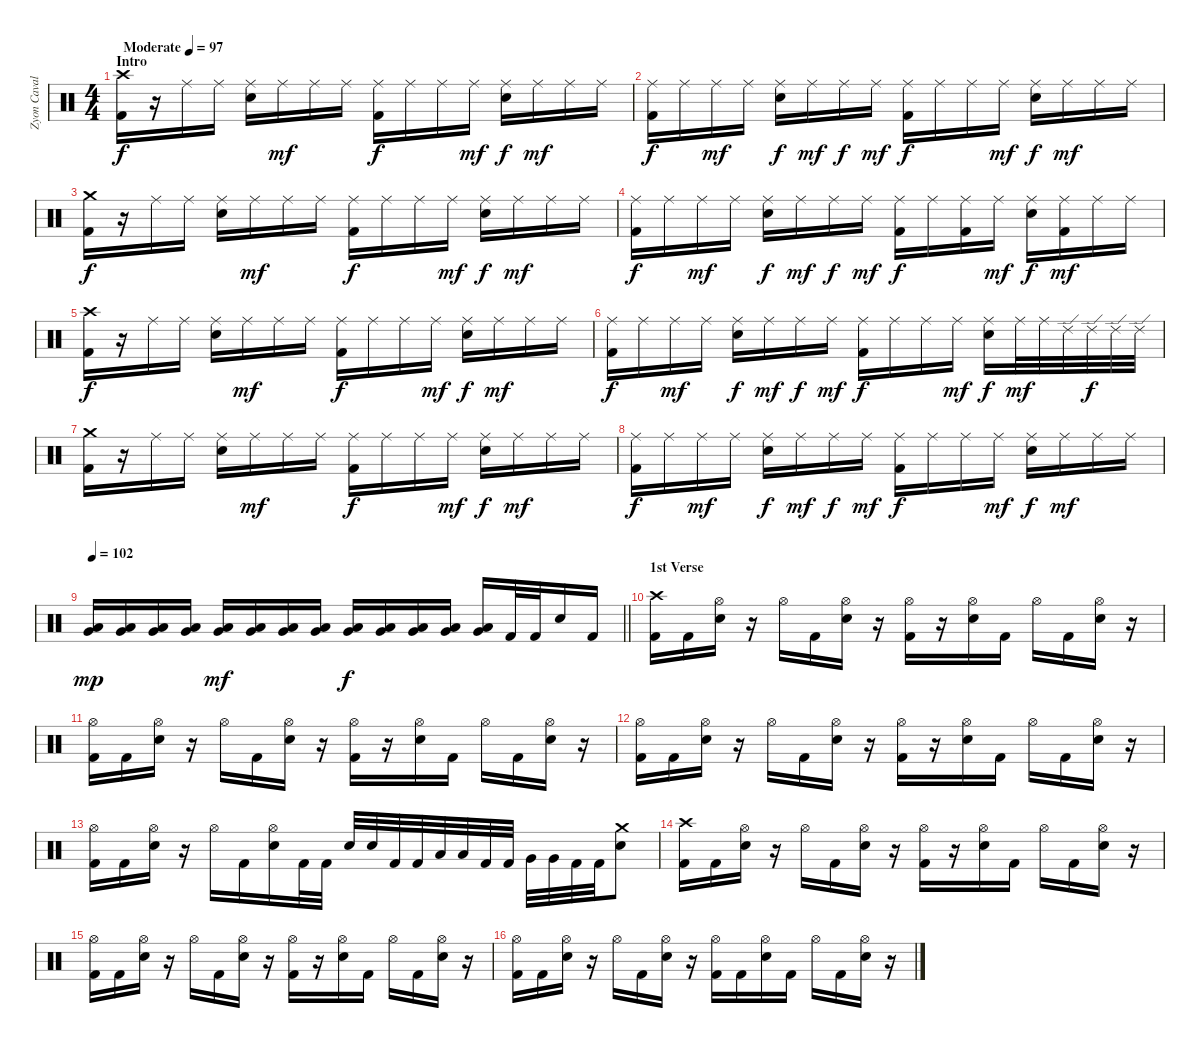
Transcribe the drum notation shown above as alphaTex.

\track ("Zyon Cavalera" "Zyon Caval") {instrument percussion}
\staff {score}
\articulation defaults
\ts (4 4)
\section ("" "Intro")
\tempo (97 "Moderate")
\clef neutral
\ks c
("Crash high (hit)" "Kick (hit) 2").16{dy f} r.16 "Ride (middle)".16 "Ride (middle)".16 ("Ride (middle)" "Snare (hit) 2").16 "Ride (middle)".16{dy mf} "Ride (middle)".16 "Ride (middle)".16 ("Ride (middle)" "Kick (hit) 2").16{dy f} "Ride (middle)".16 "Ride (middle)".16 "Ride (middle)".16{dy mf} ("Ride (middle)" "Snare (hit) 2").16{dy f} "Ride (middle)".16{dy mf} "Ride (middle)".16 "Ride (middle)".16 |
("Ride (middle)" "Kick (hit) 2").16{dy f} "Ride (middle)".16 "Ride (middle)".16{dy mf} "Ride (middle)".16 ("Ride (middle)" "Snare (hit) 2").16{dy f} "Ride (middle)".16{dy mf} "Ride (middle)".16{dy f} "Ride (middle)".16{dy mf} ("Ride (middle)" "Kick (hit) 2").16{dy f} "Ride (middle)".16 "Ride (middle)".16 "Ride (middle)".16{dy mf} ("Ride (middle)" "Snare (hit) 2").16{dy f} "Ride (middle)".16{dy mf} "Ride (middle)".16 "Ride (middle)".16 |
("Crash medium (hit)" "Kick (hit) 2").16{dy f} r.16 "Ride (middle)".16 "Ride (middle)".16 ("Ride (middle)" "Snare (hit) 2").16 "Ride (middle)".16{dy mf} "Ride (middle)".16 "Ride (middle)".16 ("Ride (middle)" "Kick (hit) 2").16{dy f} "Ride (middle)".16 "Ride (middle)".16 "Ride (middle)".16{dy mf} ("Ride (middle)" "Snare (hit) 2").16{dy f} "Ride (middle)".16{dy mf} "Ride (middle)".16 "Ride (middle)".16 |
("Ride (middle)" "Kick (hit) 2").16{dy f} "Ride (middle)".16 "Ride (middle)".16{dy mf} "Ride (middle)".16 ("Ride (middle)" "Snare (hit) 2").16{dy f} "Ride (middle)".16{dy mf} "Ride (middle)".16{dy f} "Ride (middle)".16{dy mf} ("Ride (middle)" "Kick (hit) 2").16{dy f} "Ride (middle)".16 ("Ride (middle)" "Kick (hit) 2").16 "Ride (middle)".16{dy mf} ("Ride (middle)" "Snare (hit) 2").16{dy f} ("Ride (middle)" "Kick (hit) 2").16{dy mf} "Ride (middle)".16 "Ride (middle)".16 |
("Crash high (hit)" "Kick (hit) 2").16{dy f} r.16 "Ride (middle)".16 "Ride (middle)".16 ("Ride (middle)" "Snare (hit) 2").16 "Ride (middle)".16{dy mf} "Ride (middle)".16 "Ride (middle)".16 ("Ride (middle)" "Kick (hit) 2").16{dy f} "Ride (middle)".16 "Ride (middle)".16 "Ride (middle)".16{dy mf} ("Ride (middle)" "Snare (hit) 2").16{dy f} "Ride (middle)".16{dy mf} "Ride (middle)".16 "Ride (middle)".16 |
("Ride (middle)" "Kick (hit) 2").16{dy f} "Ride (middle)".16 "Ride (middle)".16{dy mf} "Ride (middle)".16 ("Ride (middle)" "Snare (hit) 2").16{dy f} "Ride (middle)".16{dy mf} "Ride (middle)".16{dy f} "Ride (middle)".16{dy mf} ("Ride (middle)" "Kick (hit) 2").16{dy f} "Ride (middle)".16 "Ride (middle)".16 "Ride (middle)".16{dy mf} ("Ride (middle)" "Snare (hit) 2").16{dy f} "Ride (middle)".32{dy mf} "Ride (middle)".32 "Ride (edge) 2".32 "Ride (edge) 2".32{dy f} "Ride (edge) 2".32 "Ride (edge) 2".32 |
("Crash medium (hit)" "Kick (hit) 2").16 r.16 "Ride (middle)".16 "Ride (middle)".16 ("Ride (middle)" "Snare (hit) 2").16 "Ride (middle)".16{dy mf} "Ride (middle)".16 "Ride (middle)".16 ("Ride (middle)" "Kick (hit) 2").16{dy f} "Ride (middle)".16 "Ride (middle)".16 "Ride (middle)".16{dy mf} ("Ride (middle)" "Snare (hit) 2").16{dy f} "Ride (middle)".16{dy mf} "Ride (middle)".16 "Ride (middle)".16 |
("Ride (middle)" "Kick (hit) 2").16{dy f} "Ride (middle)".16 "Ride (middle)".16{dy mf} "Ride (middle)".16 ("Ride (middle)" "Snare (hit) 2").16{dy f} "Ride (middle)".16{dy mf} "Ride (middle)".16{dy f} "Ride (middle)".16{dy mf} ("Ride (middle)" "Kick (hit) 2").16{dy f} "Ride (middle)".16 "Ride (middle)".16 "Ride (middle)".16{dy mf} ("Ride (middle)" "Snare (hit) 2").16{dy f} "Ride (middle)".16{dy mf} "Ride (middle)".16 "Ride (middle)".16 |
\tempo 102
\barLineRight lightlight
("Very Low Tom (hit)" "Low Floor Tom (hit)").16{dy mp} ("Very Low Tom (hit)" "Low Floor Tom (hit)").16 ("Very Low Tom (hit)" "Low Floor Tom (hit)").16 ("Very Low Tom (hit)" "Low Floor Tom (hit)").16 ("Very Low Tom (hit)" "Low Floor Tom (hit)").16{dy mf} ("Very Low Tom (hit)" "Low Floor Tom (hit)").16 ("Very Low Tom (hit)" "Low Floor Tom (hit)").16 ("Very Low Tom (hit)" "Low Floor Tom (hit)").16 ("Very Low Tom (hit)" "Low Floor Tom (hit)").16{dy f} ("Very Low Tom (hit)" "Low Floor Tom (hit)").16 ("Very Low Tom (hit)" "Low Floor Tom (hit)").16 ("Very Low Tom (hit)" "Low Floor Tom (hit)").16 ("Very Low Tom (hit)" "Low Floor Tom (hit)").16 "Kick (hit) 2".32 "Kick (hit) 2".32 "Snare (hit) 2".16 "Kick (hit) 2".16 |
\section ("" "1st Verse")
("Crash high (hit)" "Kick (hit) 2").16 "Kick (hit) 2".16 ("Hi-Hat (open)" "Snare (hit) 2").16 r.16 "Hi-Hat (open)".16 "Kick (hit) 2".16 ("Hi-Hat (open)" "Snare (hit) 2").16 r.16 ("Hi-Hat (open)" "Kick (hit) 2").16 r.16 ("Hi-Hat (open)" "Snare (hit) 2").16 "Kick (hit) 2".16 "Hi-Hat (open)".16 "Kick (hit) 2".16 ("Hi-Hat (open)" "Snare (hit) 2").16 r.16 |
("Hi-Hat (open)" "Kick (hit) 2").16 "Kick (hit) 2".16 ("Hi-Hat (open)" "Snare (hit) 2").16 r.16 "Hi-Hat (open)".16 "Kick (hit) 2".16 ("Hi-Hat (open)" "Snare (hit) 2").16 r.16 ("Hi-Hat (open)" "Kick (hit) 2").16 r.16 ("Hi-Hat (open)" "Snare (hit) 2").16 "Kick (hit) 2".16 "Hi-Hat (open)".16 "Kick (hit) 2".16 ("Hi-Hat (open)" "Snare (hit) 2").16 r.16 |
("Hi-Hat (open)" "Kick (hit) 2").16 "Kick (hit) 2".16 ("Hi-Hat (open)" "Snare (hit) 2").16 r.16 "Hi-Hat (open)".16 "Kick (hit) 2".16 ("Hi-Hat (open)" "Snare (hit) 2").16 r.16 ("Hi-Hat (open)" "Kick (hit) 2").16 r.16 ("Hi-Hat (open)" "Snare (hit) 2").16 "Kick (hit) 2".16 "Hi-Hat (open)".16 "Kick (hit) 2".16 ("Hi-Hat (open)" "Snare (hit) 2").16 r.16 |
("Hi-Hat (open)" "Kick (hit) 2").16 "Kick (hit) 2".16 ("Hi-Hat (open)" "Snare (hit) 2").16 r.16 "Hi-Hat (open)".16 "Kick (hit) 2".16 ("Hi-Hat (open)" "Snare (hit) 2").16 "Kick (hit) 2".32 "Kick (hit) 2".32 "Snare (hit) 2".32 "Snare (hit) 2".32 "Kick (hit) 2".32 "Kick (hit) 2".32 "Low Tom (hit)".32 "Low Tom (hit)".32 "Kick (hit) 2".32 "Kick (hit) 2".32 "Very Low Tom (hit)".32 "Very Low Tom (hit)".32 "Kick (hit) 2".32 "Kick (hit) 2".32 ("Crash medium (hit)" "Snare (hit) 2").8 |
("Crash high (hit)" "Kick (hit) 2").16 "Kick (hit) 2".16 ("Hi-Hat (open)" "Snare (hit) 2").16 r.16 "Hi-Hat (open)".16 "Kick (hit) 2".16 ("Hi-Hat (open)" "Snare (hit) 2").16 r.16 ("Hi-Hat (open)" "Kick (hit) 2").16 r.16 ("Hi-Hat (open)" "Snare (hit) 2").16 "Kick (hit) 2".16 "Hi-Hat (open)".16 "Kick (hit) 2".16 ("Hi-Hat (open)" "Snare (hit) 2").16 r.16 |
("Hi-Hat (open)" "Kick (hit) 2").16 "Kick (hit) 2".16 ("Hi-Hat (open)" "Snare (hit) 2").16 r.16 "Hi-Hat (open)".16 "Kick (hit) 2".16 ("Hi-Hat (open)" "Snare (hit) 2").16 r.16 ("Hi-Hat (open)" "Kick (hit) 2").16 r.16 ("Hi-Hat (open)" "Snare (hit) 2").16 "Kick (hit) 2".16 "Hi-Hat (open)".16 "Kick (hit) 2".16 ("Hi-Hat (open)" "Snare (hit) 2").16 r.16 |
("Hi-Hat (open)" "Kick (hit) 2").16 "Kick (hit) 2".16 ("Hi-Hat (open)" "Snare (hit) 2").16 r.16 "Hi-Hat (open)".16 "Kick (hit) 2".16 ("Hi-Hat (open)" "Snare (hit) 2").16 r.16 ("Hi-Hat (open)" "Kick (hit) 2").16 "Kick (hit) 2".16 ("Hi-Hat (open)" "Snare (hit) 2").16 "Kick (hit) 2".16 "Hi-Hat (open)".16 "Kick (hit) 2".16 ("Hi-Hat (open)" "Snare (hit) 2").16 r.16
